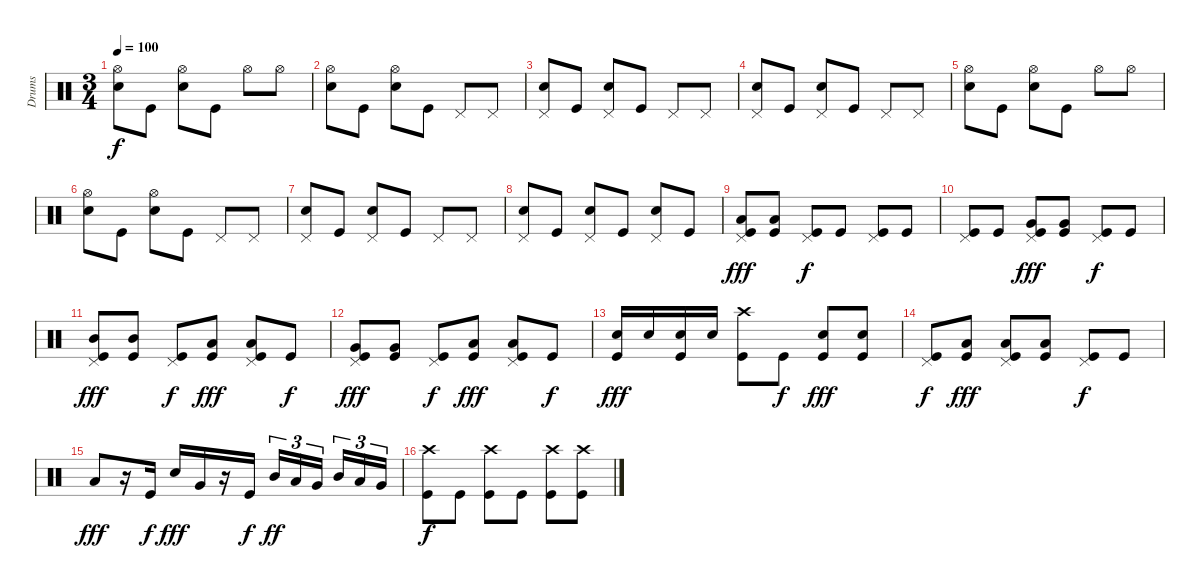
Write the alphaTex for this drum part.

\track ("Drums" "Drums") {instrument percussion}
\staff {score}
\articulation defaults
\ts (3 4)
\tempo 100
\clef neutral
\ks c
("Hi-Hat (open)" "Snare (hit) 2").8{dy f} "Kick (hit)".8 ("Hi-Hat (open)" "Snare (hit) 2").8 "Kick (hit)".8 "Hi-Hat (open)".8 "Hi-Hat (open)".8 |
("Hi-Hat (open)" "Snare (hit) 2").8 "Kick (hit)".8 ("Hi-Hat (open)" "Snare (hit) 2").8 "Kick (hit)".8 "Pedal Hi-Hat (hit)".8 "Pedal Hi-Hat (hit)".8 |
("Pedal Hi-Hat (hit)" "Snare (hit) 2").8 "Kick (hit)".8 ("Pedal Hi-Hat (hit)" "Snare (hit) 2").8 "Kick (hit)".8 "Pedal Hi-Hat (hit)".8 "Pedal Hi-Hat (hit)".8 |
("Pedal Hi-Hat (hit)" "Snare (hit) 2").8 "Kick (hit)".8 ("Pedal Hi-Hat (hit)" "Snare (hit) 2").8 "Kick (hit)".8 "Pedal Hi-Hat (hit)".8 "Pedal Hi-Hat (hit)".8 |
("Hi-Hat (open)" "Snare (hit) 2").8 "Kick (hit)".8 ("Hi-Hat (open)" "Snare (hit) 2").8 "Kick (hit)".8 "Hi-Hat (open)".8 "Hi-Hat (open)".8 |
("Hi-Hat (open)" "Snare (hit) 2").8 "Kick (hit)".8 ("Hi-Hat (open)" "Snare (hit) 2").8 "Kick (hit)".8 "Pedal Hi-Hat (hit)".8 "Pedal Hi-Hat (hit)".8 |
("Pedal Hi-Hat (hit)" "Snare (hit) 2").8 "Kick (hit)".8 ("Pedal Hi-Hat (hit)" "Snare (hit) 2").8 "Kick (hit)".8 "Pedal Hi-Hat (hit)".8 "Pedal Hi-Hat (hit)".8 |
("Pedal Hi-Hat (hit)" "Snare (hit) 2").8 "Kick (hit)".8 ("Pedal Hi-Hat (hit)" "Snare (hit) 2").8 "Kick (hit)".8 ("Pedal Hi-Hat (hit)" "Snare (hit) 2").8 "Kick (hit)".8 |
("Pedal Hi-Hat (hit)" "Low Tom (hit)" "Kick (hit)").8{dy fff} ("Low Tom (hit)" "Kick (hit)").8 ("Pedal Hi-Hat (hit)" "Kick (hit)").8{dy f} "Kick (hit)".8 ("Pedal Hi-Hat (hit)" "Kick (hit)").8 "Kick (hit)".8 |
("Pedal Hi-Hat (hit)" "Kick (hit)").8 "Kick (hit)".8 ("Pedal Hi-Hat (hit)" "Very Low Tom (hit)" "Kick (hit)").8{dy fff} ("Very Low Tom (hit)" "Kick (hit)").8 ("Pedal Hi-Hat (hit)" "Kick (hit)").8{dy f} "Kick (hit)".8 |
("Pedal Hi-Hat (hit)" "Mid Tom (hit)" "Kick (hit)").8{dy fff} ("Mid Tom (hit)" "Kick (hit)").8 ("Pedal Hi-Hat (hit)" "Kick (hit)").8{dy f} ("Low Tom (hit)" "Kick (hit)").8{dy fff} ("Pedal Hi-Hat (hit)" "Low Tom (hit)" "Kick (hit)").8 "Kick (hit)".8{dy f} |
("Pedal Hi-Hat (hit)" "Very Low Tom (hit)" "Kick (hit)").8{dy fff} ("Very Low Tom (hit)" "Kick (hit)").8 ("Pedal Hi-Hat (hit)" "Kick (hit)").8{dy f} ("Low Floor Tom (hit)" "Kick (hit)").8{dy fff} ("Pedal Hi-Hat (hit)" "Low Floor Tom (hit)" "Kick (hit)").8 "Kick (hit)".8{dy f} |
("Snare (hit) 2" "Kick (hit)").16{dy fff} "Snare (hit) 2".16 ("Snare (hit) 2" "Kick (hit)").16 "Snare (hit) 2".16 ("Crash high (hit)" "Kick (hit)").8 "Kick (hit)".8{dy f} ("Snare (hit) 2" "Kick (hit)").8{dy fff} ("Snare (hit) 2" "Kick (hit)").8 |
("Pedal Hi-Hat (hit)" "Kick (hit)").8{dy f} ("Low Tom (hit)" "Kick (hit)").8{dy fff} ("Pedal Hi-Hat (hit)" "Low Tom (hit)" "Kick (hit)").8 ("Low Tom (hit)" "Kick (hit)").8 ("Pedal Hi-Hat (hit)" "Kick (hit)").8{dy f} "Kick (hit)".8 |
"Low Tom (hit)".8{dy fff} r.16 "Kick (hit)".16{dy f} "Snare (hit) 2".16{dy fff} "Very Low Tom (hit)".16 r.16 "Kick (hit)".16{dy f} "Mid Tom (hit)".16{tu (3 2) dy ff} "Low Tom (hit)".16{tu (3 2)} "Very Low Tom (hit)".16{tu (3 2)} "Mid Tom (hit)".16{tu (3 2)} "Low Tom (hit)".16{tu (3 2)} "Very Low Tom (hit)".16{tu (3 2)} |
("Crash high (hit)" "Kick (hit)").8{dy f} "Kick (hit)".8 ("Crash high (hit)" "Kick (hit)").8 "Kick (hit)".8 ("Crash high (hit)" "Kick (hit)").8 ("Crash high (hit)" "Kick (hit)").8
